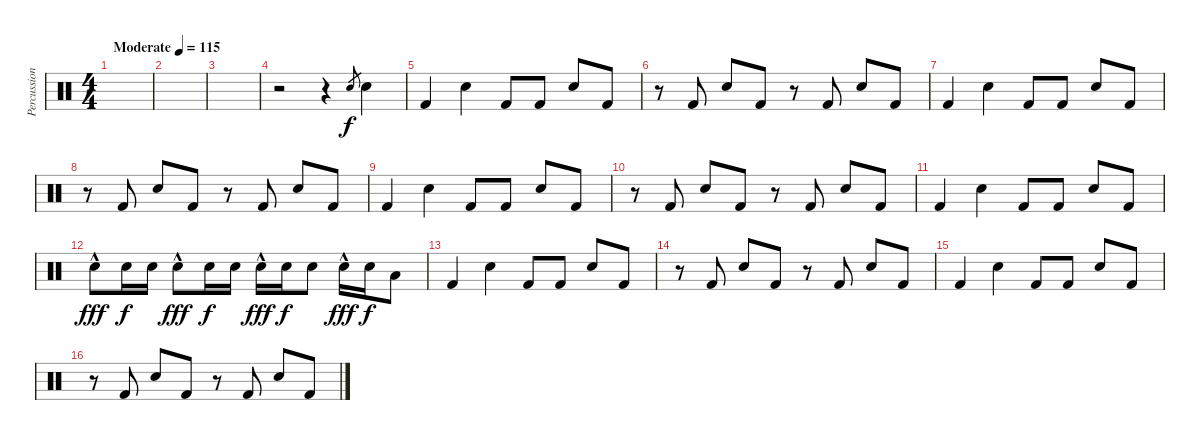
\track ("Percussion" "Percussion") {instrument percussion}
\staff {score}
\articulation defaults
\ts (4 4)
\tempo (115 "Moderate")
\clef neutral
\ks c
|
|
|
r.2 r.4 "Electric Snare (hit)".8{gr} "Electric Snare (hit)".4{dy f} |
"Kick (hit) 2".4 "Snare (hit) 2".4 "Kick (hit) 2".8 "Kick (hit) 2".8 "Snare (hit) 2".8 "Kick (hit) 2".8 |
r.8 "Kick (hit) 2".8 "Snare (hit) 2".8 "Kick (hit) 2".8 r.8 "Kick (hit) 2".8 "Snare (hit) 2".8 "Kick (hit) 2".8 |
"Kick (hit) 2".4 "Snare (hit) 2".4 "Kick (hit) 2".8 "Kick (hit) 2".8 "Snare (hit) 2".8 "Kick (hit) 2".8 |
r.8 "Kick (hit) 2".8 "Snare (hit) 2".8 "Kick (hit) 2".8 r.8 "Kick (hit) 2".8 "Snare (hit) 2".8 "Kick (hit) 2".8 |
"Kick (hit) 2".4 "Snare (hit) 2".4 "Kick (hit) 2".8 "Kick (hit) 2".8 "Snare (hit) 2".8 "Kick (hit) 2".8 |
r.8 "Kick (hit) 2".8 "Snare (hit) 2".8 "Kick (hit) 2".8 r.8 "Kick (hit) 2".8 "Snare (hit) 2".8 "Kick (hit) 2".8 |
"Kick (hit) 2".4 "Snare (hit) 2".4 "Kick (hit) 2".8 "Kick (hit) 2".8 "Snare (hit) 2".8 "Kick (hit) 2".8 |
"Electric Snare (hit)"{hac}.8{dy fff} "Electric Snare (hit)".16{dy f} "Electric Snare (hit)".16 "Electric Snare (hit)"{hac}.8{dy fff} "Electric Snare (hit)".16{dy f} "Electric Snare (hit)".16 "Electric Snare (hit)"{hac}.16{dy fff} "Electric Snare (hit)".16{dy f} "Electric Snare (hit)".8 "Electric Snare (hit)"{hac}.16{dy fff} "Electric Snare (hit)".16{dy f} "Low Tom (hit)".8 |
"Kick (hit) 2".4 "Snare (hit) 2".4 "Kick (hit) 2".8 "Kick (hit) 2".8 "Snare (hit) 2".8 "Kick (hit) 2".8 |
r.8 "Kick (hit) 2".8 "Snare (hit) 2".8 "Kick (hit) 2".8 r.8 "Kick (hit) 2".8 "Snare (hit) 2".8 "Kick (hit) 2".8 |
"Kick (hit) 2".4 "Snare (hit) 2".4 "Kick (hit) 2".8 "Kick (hit) 2".8 "Snare (hit) 2".8 "Kick (hit) 2".8 |
r.8 "Kick (hit) 2".8 "Snare (hit) 2".8 "Kick (hit) 2".8 r.8 "Kick (hit) 2".8 "Snare (hit) 2".8 "Kick (hit) 2".8
